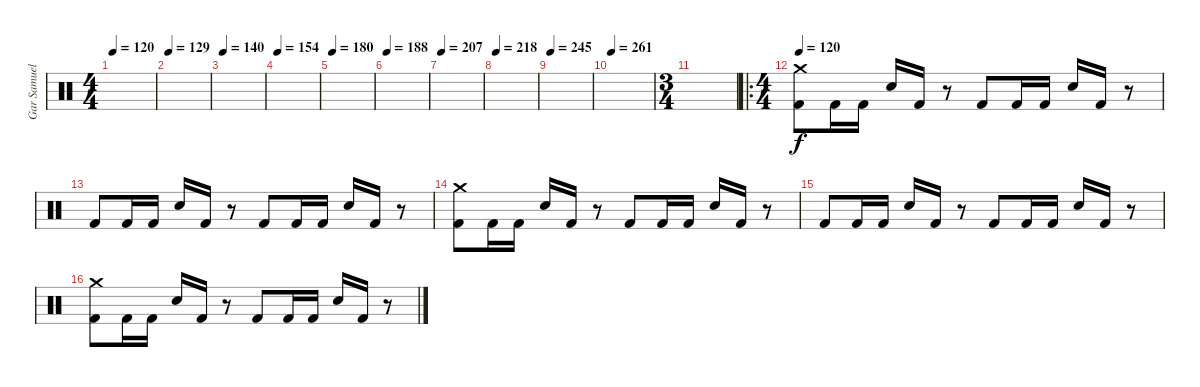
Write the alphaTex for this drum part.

\track ("Gar Samuelson" "Gar Samuel") {instrument percussion}
\staff {score}
\articulation defaults
\ts (4 4)
\tempo 120
\clef neutral
\ks c
|
\tempo 129
|
\tempo 140
|
\tempo 154
|
\tempo 180
|
\tempo 188
|
\tempo 207
|
\tempo 218
|
\tempo 245
|
\tempo 261
|
\ts (3 4)
|
\ro
\ts (4 4)
\tempo 120
("Crash medium (hit)" "Kick (hit) 2").8 "Kick (hit) 2".16 "Kick (hit) 2".16 "Snare (hit) 2".16 "Kick (hit) 2".16 r.8 "Kick (hit) 2".8 "Kick (hit) 2".16 "Kick (hit) 2".16 "Snare (hit) 2".16 "Kick (hit) 2".16 r.8 |
"Kick (hit) 2".8 "Kick (hit) 2".16 "Kick (hit) 2".16 "Snare (hit) 2".16 "Kick (hit) 2".16 r.8 "Kick (hit) 2".8 "Kick (hit) 2".16 "Kick (hit) 2".16 "Snare (hit) 2".16 "Kick (hit) 2".16 r.8 |
("Crash medium (hit)" "Kick (hit) 2").8 "Kick (hit) 2".16 "Kick (hit) 2".16 "Snare (hit) 2".16 "Kick (hit) 2".16 r.8 "Kick (hit) 2".8 "Kick (hit) 2".16 "Kick (hit) 2".16 "Snare (hit) 2".16 "Kick (hit) 2".16 r.8 |
"Kick (hit) 2".8 "Kick (hit) 2".16 "Kick (hit) 2".16 "Snare (hit) 2".16 "Kick (hit) 2".16 r.8 "Kick (hit) 2".8 "Kick (hit) 2".16 "Kick (hit) 2".16 "Snare (hit) 2".16 "Kick (hit) 2".16 r.8 |
("Crash medium (hit)" "Kick (hit) 2").8 "Kick (hit) 2".16 "Kick (hit) 2".16 "Snare (hit) 2".16 "Kick (hit) 2".16 r.8 "Kick (hit) 2".8 "Kick (hit) 2".16 "Kick (hit) 2".16 "Snare (hit) 2".16 "Kick (hit) 2".16 r.8
